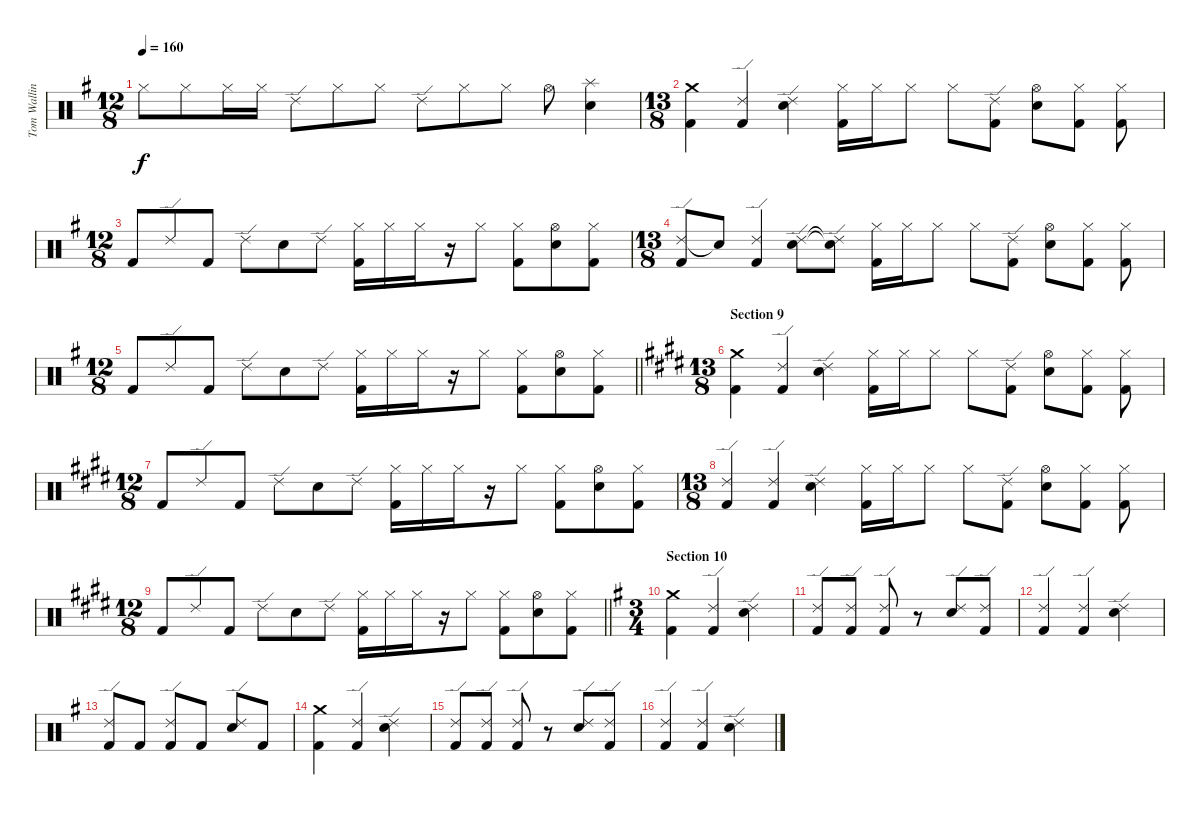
\track ("Tom Walling (drums)" "Tom Wallin") {instrument percussion}
\staff {score}
\articulation defaults
\ts (12 8)
\tempo 160
\clef neutral
\ks eminor "Hi-Hat (closed)".8{dy f} "Hi-Hat (closed)".8 "Hi-Hat (closed)".16 "Hi-Hat (closed)".16 "Ride (edge) 2".8 "Hi-Hat (closed)".8 "Hi-Hat (closed)".8 "Ride (edge) 2".8 "Hi-Hat (closed)".8 "Hi-Hat (closed)".8 "Hi-Hat (open)".8
("Splash (hit)" "Electric Snare (hit)").4 |
\ts (13 8)
("Crash medium (hit)" "Kick (hit) 2").4 ("Ride (edge) 2" "Kick (hit) 2").4 ("Ride (edge) 2" "Electric Snare (hit)").4 ("Hi-Hat (closed)" "Kick (hit) 2").16 "Hi-Hat (closed)".16 "Hi-Hat (closed)".8 "Hi-Hat (closed)".8 ("Ride (edge) 2" "Kick (hit) 2").8 ("Hi-Hat (open)" "Electric Snare (hit)").8 ("Hi-Hat (closed)" "Kick (hit) 2").8 ("Hi-Hat (closed)" "Kick (hit) 2").8 |
\ts (12 8)
"Kick (hit) 2".8 "Ride (edge) 2".8 "Kick (hit) 2".8 "Ride (edge) 2".8 "Electric Snare (hit)".8 "Ride (edge) 2".8 ("Hi-Hat (closed)" "Kick (hit) 2").16 "Hi-Hat (closed)".16 "Hi-Hat (closed)".16 r.16 "Hi-Hat (closed)".8 ("Hi-Hat (closed)" "Kick (hit) 2").8 ("Hi-Hat (open)" "Electric Snare (hit)").8 ("Hi-Hat (closed)" "Kick (hit) 2").8 |
\ts (13 8)
("Ride (edge) 2" "Kick (hit) 2").8 "Snare (hit)"{t}.8 ("Ride (edge) 2" "Kick (hit) 2").4 ("Ride (edge) 2" "Electric Snare (hit)").8 ("Ride (edge) 2"{t} "Electric Snare (hit)"{t}).8 ("Hi-Hat (closed)" "Kick (hit) 2").16 "Hi-Hat (closed)".16 "Hi-Hat (closed)".8 "Hi-Hat (closed)".8 ("Ride (edge) 2" "Kick (hit) 2").8 ("Hi-Hat (open)" "Electric Snare (hit)").8 ("Hi-Hat (closed)" "Kick (hit) 2").8 ("Hi-Hat (closed)" "Kick (hit) 2").8 |
\ts (12 8)
\barLineRight lightlight "Kick (hit) 2".8 "Ride (edge) 2".8 "Kick (hit) 2".8 "Ride (edge) 2".8 "Electric Snare (hit)".8 "Ride (edge) 2".8
("Hi-Hat (closed)" "Kick (hit) 2").16 "Hi-Hat (closed)".16 "Hi-Hat (closed)".16 r.16 "Hi-Hat (closed)".8 ("Hi-Hat (closed)" "Kick (hit) 2").8 ("Hi-Hat (open)" "Electric Snare (hit)").8 ("Hi-Hat (closed)" "Kick (hit) 2").8 |
\ts (13 8)
\section ("" "Section 9")
\ks c#minor
("Crash medium (hit)" "Kick (hit) 2").4 ("Ride (edge) 2" "Kick (hit) 2").4 ("Ride (edge) 2" "Electric Snare (hit)").4 ("Hi-Hat (closed)" "Kick (hit) 2").16 "Hi-Hat (closed)".16 "Hi-Hat (closed)".8 "Hi-Hat (closed)".8 ("Ride (edge) 2" "Kick (hit) 2").8 ("Hi-Hat (open)" "Electric Snare (hit)").8 ("Hi-Hat (closed)" "Kick (hit) 2").8 ("Hi-Hat (closed)" "Kick (hit) 2").8 |
\ts (12 8)
"Kick (hit) 2".8 "Ride (edge) 2".8 "Kick (hit) 2".8 "Ride (edge) 2".8 "Electric Snare (hit)".8 "Ride (edge) 2".8 ("Hi-Hat (closed)" "Kick (hit) 2").16 "Hi-Hat (closed)".16 "Hi-Hat (closed)".16 r.16 "Hi-Hat (closed)".8 ("Hi-Hat (closed)" "Kick (hit) 2").8 ("Hi-Hat (open)" "Electric Snare (hit)").8 ("Hi-Hat (closed)" "Kick (hit) 2").8 |
\ts (13 8)
("Ride (edge) 2" "Kick (hit) 2").4 ("Ride (edge) 2" "Kick (hit) 2").4 ("Ride (edge) 2" "Electric Snare (hit)").4 ("Hi-Hat (closed)" "Kick (hit) 2").16 "Hi-Hat (closed)".16 "Hi-Hat (closed)".8 "Hi-Hat (closed)".8 ("Ride (edge) 2" "Kick (hit) 2").8 ("Hi-Hat (open)" "Electric Snare (hit)").8 ("Hi-Hat (closed)" "Kick (hit) 2").8 ("Hi-Hat (closed)" "Kick (hit) 2").8 |
\ts (12 8)
\barLineRight lightlight "Kick (hit) 2".8 "Ride (edge) 2".8 "Kick (hit) 2".8 "Ride (edge) 2".8 "Electric Snare (hit)".8 "Ride (edge) 2".8
("Hi-Hat (closed)" "Kick (hit) 2").16 "Hi-Hat (closed)".16 "Hi-Hat (closed)".16 r.16 "Hi-Hat (closed)".8 ("Hi-Hat (closed)" "Kick (hit) 2").8 ("Hi-Hat (open)" "Electric Snare (hit)").8 ("Hi-Hat (closed)" "Kick (hit) 2").8 |
\ts (3 4)
\section ("" "Section 10")
\ks eminor
("Crash medium (hit)" "Kick (hit) 2").4 ("Ride (edge) 2" "Kick (hit) 2").4 ("Ride (edge) 2" "Electric Snare (hit)").4 |
("Ride (edge) 2" "Kick (hit) 2").8 ("Ride (edge) 2" "Kick (hit) 2").8 ("Ride (edge) 2" "Kick (hit) 2").8 r.8 ("Ride (edge) 2" "Electric Snare (hit)").8 ("Ride (edge) 2" "Kick (hit) 2").8 |
("Ride (edge) 2" "Kick (hit) 2").4 ("Ride (edge) 2" "Kick (hit) 2").4 ("Ride (edge) 2" "Electric Snare (hit)").4 |
("Ride (edge) 2" "Kick (hit) 2").8 "Kick (hit) 2".8 ("Ride (edge) 2" "Kick (hit) 2").8 "Kick (hit) 2".8 ("Ride (edge) 2" "Electric Snare (hit)").8 "Kick (hit) 2".8 |
("Crash medium (hit)" "Kick (hit) 2").4 ("Ride (edge) 2" "Kick (hit) 2").4 ("Ride (edge) 2" "Electric Snare (hit)").4 |
("Ride (edge) 2" "Kick (hit) 2").8 ("Ride (edge) 2" "Kick (hit) 2").8 ("Ride (edge) 2" "Kick (hit) 2").8 r.8 ("Ride (edge) 2" "Electric Snare (hit)").8 ("Ride (edge) 2" "Kick (hit) 2").8 |
("Ride (edge) 2" "Kick (hit) 2").4 ("Ride (edge) 2" "Kick (hit) 2").4 ("Ride (edge) 2" "Electric Snare (hit)").4
